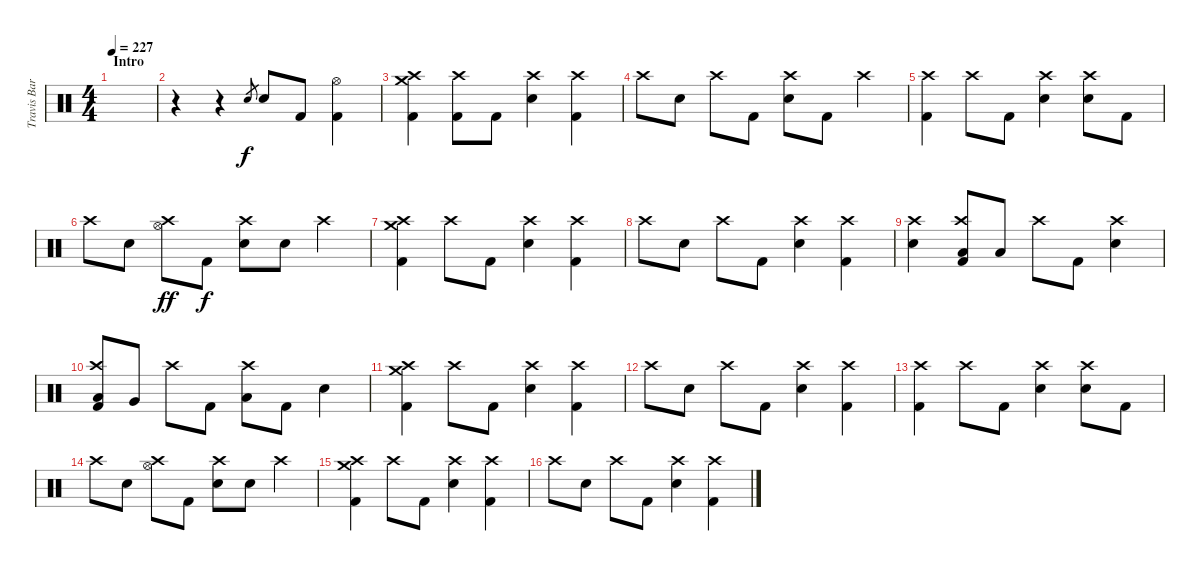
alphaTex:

\track ("Travis Barker - Drum" "Travis Bar") {instrument percussion}
\staff {score}
\articulation defaults
\ts (4 4)
\section ("" "Intro")
\tempo 227
\clef neutral
\ks c
|
r.4 r.4 "Electric Snare (hit)".8{gr} "Electric Snare (hit)".8 "Kick (hit) 2".8 ("Hi-Hat (open)" "Kick (hit) 2").4 |
("Crash medium (hit)" "Crash high (hit)" "Kick (hit) 2").4 ("Crash high (hit)" "Kick (hit) 2").8 "Kick (hit) 2".8 ("Crash high (hit)" "Electric Snare (hit)").4 ("Crash high (hit)" "Kick (hit) 2").4 |
"Crash high (hit)".8 "Electric Snare (hit)".8 "Crash high (hit)".8 "Kick (hit) 2".8 ("Crash high (hit)" "Electric Snare (hit)").8 "Kick (hit) 2".8 "Crash high (hit)".4 |
("Crash high (hit)" "Kick (hit) 2").4 "Crash high (hit)".8 "Kick (hit) 2".8 ("Crash high (hit)" "Electric Snare (hit)").4 ("Crash high (hit)" "Electric Snare (hit)").8 "Kick (hit) 2".8 |
"Crash high (hit)".8 "Electric Snare (hit)".8 ("Crash high (hit)" "Hi-Hat (open)").8{dy ff} "Kick (hit) 2".8{dy f} ("Crash high (hit)" "Electric Snare (hit)").8 "Electric Snare (hit)".8 "Crash high (hit)".4 |
("Crash medium (hit)" "Crash high (hit)" "Kick (hit) 2").4 "Crash high (hit)".8 "Kick (hit) 2".8 ("Crash high (hit)" "Electric Snare (hit)").4 ("Crash high (hit)" "Kick (hit) 2").4 |
"Crash high (hit)".8 "Electric Snare (hit)".8 "Crash high (hit)".8 "Kick (hit) 2".8 ("Crash high (hit)" "Electric Snare (hit)").4 ("Crash high (hit)" "Kick (hit) 2").4 |
("Crash high (hit)" "Electric Snare (hit)").4 ("Crash high (hit)" "Low Tom (hit)" "Kick (hit) 2").8 "Low Tom (hit)".8 "Crash high (hit)".8 "Kick (hit) 2".8 ("Crash high (hit)" "Electric Snare (hit)").4 |
("Crash high (hit)" "Low Tom (hit)" "Kick (hit) 2").8 "Very Low Tom (hit)".8 "Crash high (hit)".8 "Kick (hit) 2".8 ("Crash high (hit)" "Low Floor Tom (hit)").8 "Kick (hit) 2".8 "Electric Snare (hit)".4 |
("Crash medium (hit)" "Crash high (hit)" "Kick (hit) 2").4 "Crash high (hit)".8 "Kick (hit) 2".8 ("Crash high (hit)" "Electric Snare (hit)").4 ("Crash high (hit)" "Kick (hit) 2").4 |
"Crash high (hit)".8 "Electric Snare (hit)".8 "Crash high (hit)".8 "Kick (hit) 2".8 ("Crash high (hit)" "Electric Snare (hit)").4 ("Crash high (hit)" "Kick (hit) 2").4 |
("Crash high (hit)" "Kick (hit) 2").4 "Crash high (hit)".8 "Kick (hit) 2".8 ("Crash high (hit)" "Electric Snare (hit)").4 ("Crash high (hit)" "Electric Snare (hit)").8 "Kick (hit) 2".8 |
"Crash high (hit)".8 "Electric Snare (hit)".8 ("Crash high (hit)" "Hi-Hat (open)").8 "Kick (hit) 2".8 ("Crash high (hit)" "Electric Snare (hit)").8 "Electric Snare (hit)".8 "Crash high (hit)".4 |
("Crash medium (hit)" "Crash high (hit)" "Kick (hit) 2").4 "Crash high (hit)".8 "Kick (hit) 2".8 ("Crash high (hit)" "Electric Snare (hit)").4 ("Crash high (hit)" "Kick (hit) 2").4 |
"Crash high (hit)".8 "Electric Snare (hit)".8 "Crash high (hit)".8 "Kick (hit) 2".8 ("Crash high (hit)" "Electric Snare (hit)").4 ("Crash high (hit)" "Kick (hit) 2").4
